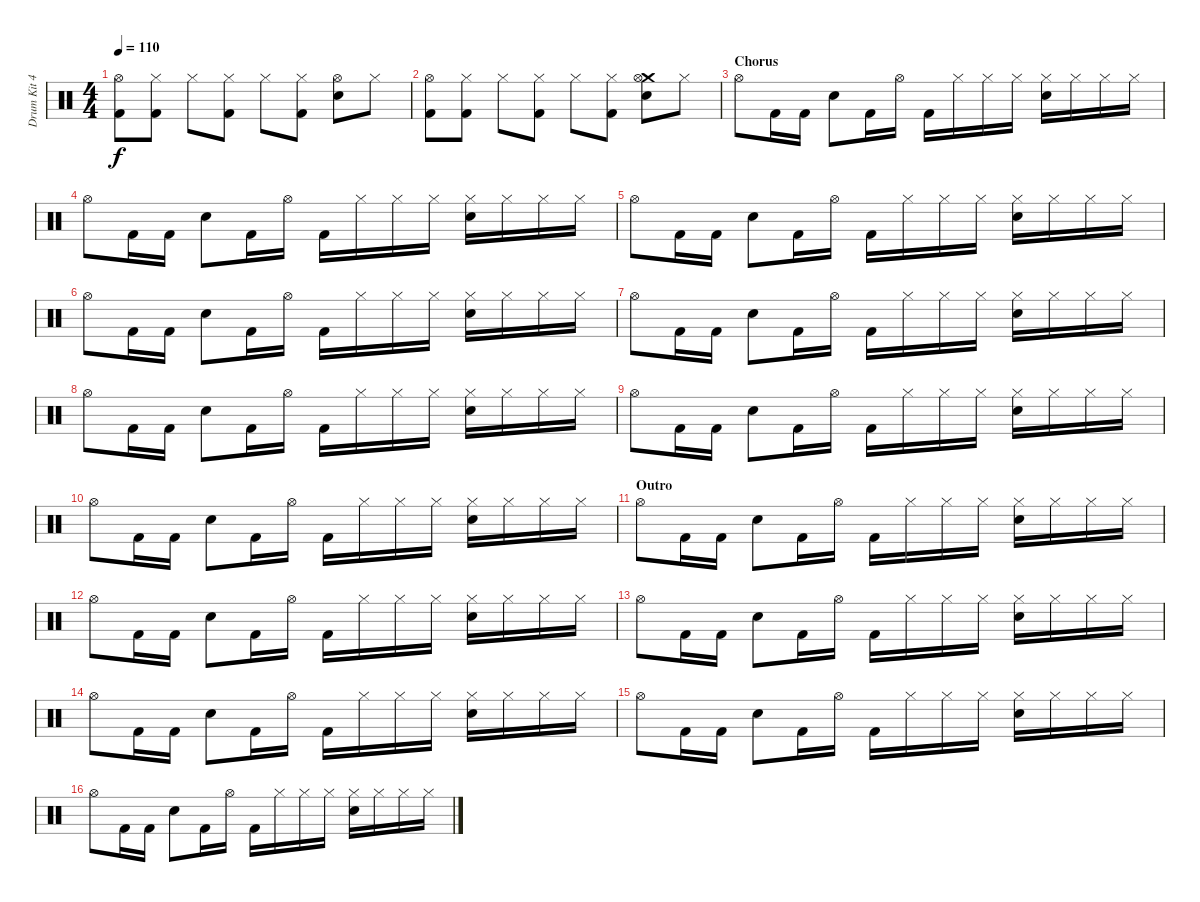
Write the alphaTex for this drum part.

\track ("Drum Kit 42" "Drum Kit 4") {instrument percussion}
\staff {score}
\articulation defaults
\ts (4 4)
\tempo 110
\clef neutral
\ks c
("Hi-Hat (open)" "Kick (hit) 2").8{dy f} ("Hi-Hat (closed)" "Kick (hit) 2").8 "Hi-Hat (closed)".8 ("Hi-Hat (closed)" "Kick (hit) 2").8 "Hi-Hat (closed)".8 ("Hi-Hat (closed)" "Kick (hit) 2").8 ("Hi-Hat (open)" "Snare (hit) 2").8 "Hi-Hat (closed)".8 |
("Hi-Hat (open)" "Kick (hit) 2").8 ("Hi-Hat (closed)" "Kick (hit) 2").8 "Hi-Hat (closed)".8 ("Hi-Hat (closed)" "Kick (hit) 2").8 "Hi-Hat (closed)".8 ("Hi-Hat (closed)" "Kick (hit) 2").8 ("Crash medium (hit)" "Hi-Hat (open)" "Snare (hit) 2").8 "Hi-Hat (closed)".8 |
\section ("" "Chorus")
"Hi-Hat (open)".8 "Kick (hit) 2".16 "Kick (hit) 2".16 "Snare (hit) 2".8 "Kick (hit) 2".16 "Hi-Hat (open)".16 "Kick (hit) 2".16 "Hi-Hat (closed)".16 "Hi-Hat (closed)".16 "Hi-Hat (closed)".16 ("Hi-Hat (closed)" "Snare (hit) 2").16 "Hi-Hat (closed)".16 "Hi-Hat (closed)".16 "Hi-Hat (closed)".16 |
"Hi-Hat (open)".8 "Kick (hit) 2".16 "Kick (hit) 2".16 "Snare (hit) 2".8 "Kick (hit) 2".16 "Hi-Hat (open)".16 "Kick (hit) 2".16 "Hi-Hat (closed)".16 "Hi-Hat (closed)".16 "Hi-Hat (closed)".16 ("Hi-Hat (closed)" "Snare (hit) 2").16 "Hi-Hat (closed)".16 "Hi-Hat (closed)".16 "Hi-Hat (closed)".16 |
"Hi-Hat (open)".8 "Kick (hit) 2".16 "Kick (hit) 2".16 "Snare (hit) 2".8 "Kick (hit) 2".16 "Hi-Hat (open)".16 "Kick (hit) 2".16 "Hi-Hat (closed)".16 "Hi-Hat (closed)".16 "Hi-Hat (closed)".16 ("Hi-Hat (closed)" "Snare (hit) 2").16 "Hi-Hat (closed)".16 "Hi-Hat (closed)".16 "Hi-Hat (closed)".16 |
"Hi-Hat (open)".8 "Kick (hit) 2".16 "Kick (hit) 2".16 "Snare (hit) 2".8 "Kick (hit) 2".16 "Hi-Hat (open)".16 "Kick (hit) 2".16 "Hi-Hat (closed)".16 "Hi-Hat (closed)".16 "Hi-Hat (closed)".16 ("Hi-Hat (closed)" "Snare (hit) 2").16 "Hi-Hat (closed)".16 "Hi-Hat (closed)".16 "Hi-Hat (closed)".16 |
"Hi-Hat (open)".8 "Kick (hit) 2".16 "Kick (hit) 2".16 "Snare (hit) 2".8 "Kick (hit) 2".16 "Hi-Hat (open)".16 "Kick (hit) 2".16 "Hi-Hat (closed)".16 "Hi-Hat (closed)".16 "Hi-Hat (closed)".16 ("Hi-Hat (closed)" "Snare (hit) 2").16 "Hi-Hat (closed)".16 "Hi-Hat (closed)".16 "Hi-Hat (closed)".16 |
"Hi-Hat (open)".8 "Kick (hit) 2".16 "Kick (hit) 2".16 "Snare (hit) 2".8 "Kick (hit) 2".16 "Hi-Hat (open)".16 "Kick (hit) 2".16 "Hi-Hat (closed)".16 "Hi-Hat (closed)".16 "Hi-Hat (closed)".16 ("Hi-Hat (closed)" "Snare (hit) 2").16 "Hi-Hat (closed)".16 "Hi-Hat (closed)".16 "Hi-Hat (closed)".16 |
"Hi-Hat (open)".8 "Kick (hit) 2".16 "Kick (hit) 2".16 "Snare (hit) 2".8 "Kick (hit) 2".16 "Hi-Hat (open)".16 "Kick (hit) 2".16 "Hi-Hat (closed)".16 "Hi-Hat (closed)".16 "Hi-Hat (closed)".16 ("Hi-Hat (closed)" "Snare (hit) 2").16 "Hi-Hat (closed)".16 "Hi-Hat (closed)".16 "Hi-Hat (closed)".16 |
"Hi-Hat (open)".8 "Kick (hit) 2".16 "Kick (hit) 2".16 "Snare (hit) 2".8 "Kick (hit) 2".16 "Hi-Hat (open)".16 "Kick (hit) 2".16 "Hi-Hat (closed)".16 "Hi-Hat (closed)".16 "Hi-Hat (closed)".16 ("Hi-Hat (closed)" "Snare (hit) 2").16 "Hi-Hat (closed)".16 "Hi-Hat (closed)".16 "Hi-Hat (closed)".16 |
\section ("" "Outro")
"Hi-Hat (open)".8{volume 10} "Kick (hit) 2".16 "Kick (hit) 2".16 "Snare (hit) 2".8 "Kick (hit) 2".16 "Hi-Hat (open)".16 "Kick (hit) 2".16 "Hi-Hat (closed)".16 "Hi-Hat (closed)".16 "Hi-Hat (closed)".16 ("Hi-Hat (closed)" "Snare (hit) 2").16 "Hi-Hat (closed)".16 "Hi-Hat (closed)".16 "Hi-Hat (closed)".16 |
"Hi-Hat (open)".8 "Kick (hit) 2".16 "Kick (hit) 2".16 "Snare (hit) 2".8 "Kick (hit) 2".16 "Hi-Hat (open)".16 "Kick (hit) 2".16 "Hi-Hat (closed)".16 "Hi-Hat (closed)".16 "Hi-Hat (closed)".16 ("Hi-Hat (closed)" "Snare (hit) 2").16 "Hi-Hat (closed)".16 "Hi-Hat (closed)".16 "Hi-Hat (closed)".16 |
"Hi-Hat (open)".8{volume 7} "Kick (hit) 2".16 "Kick (hit) 2".16 "Snare (hit) 2".8 "Kick (hit) 2".16 "Hi-Hat (open)".16 "Kick (hit) 2".16 "Hi-Hat (closed)".16 "Hi-Hat (closed)".16 "Hi-Hat (closed)".16 ("Hi-Hat (closed)" "Snare (hit) 2").16 "Hi-Hat (closed)".16 "Hi-Hat (closed)".16 "Hi-Hat (closed)".16 |
"Hi-Hat (open)".8 "Kick (hit) 2".16 "Kick (hit) 2".16 "Snare (hit) 2".8 "Kick (hit) 2".16 "Hi-Hat (open)".16 "Kick (hit) 2".16 "Hi-Hat (closed)".16 "Hi-Hat (closed)".16 "Hi-Hat (closed)".16 ("Hi-Hat (closed)" "Snare (hit) 2").16 "Hi-Hat (closed)".16 "Hi-Hat (closed)".16 "Hi-Hat (closed)".16 |
"Hi-Hat (open)".8{volume 4} "Kick (hit) 2".16 "Kick (hit) 2".16 "Snare (hit) 2".8 "Kick (hit) 2".16 "Hi-Hat (open)".16 "Kick (hit) 2".16 "Hi-Hat (closed)".16 "Hi-Hat (closed)".16 "Hi-Hat (closed)".16 ("Hi-Hat (closed)" "Snare (hit) 2").16 "Hi-Hat (closed)".16 "Hi-Hat (closed)".16 "Hi-Hat (closed)".16 |
"Hi-Hat (open)".8 "Kick (hit) 2".16 "Kick (hit) 2".16 "Snare (hit) 2".8 "Kick (hit) 2".16 "Hi-Hat (open)".16 "Kick (hit) 2".16 "Hi-Hat (closed)".16 "Hi-Hat (closed)".16 "Hi-Hat (closed)".16 ("Hi-Hat (closed)" "Snare (hit) 2").16 "Hi-Hat (closed)".16 "Hi-Hat (closed)".16 "Hi-Hat (closed)".16
